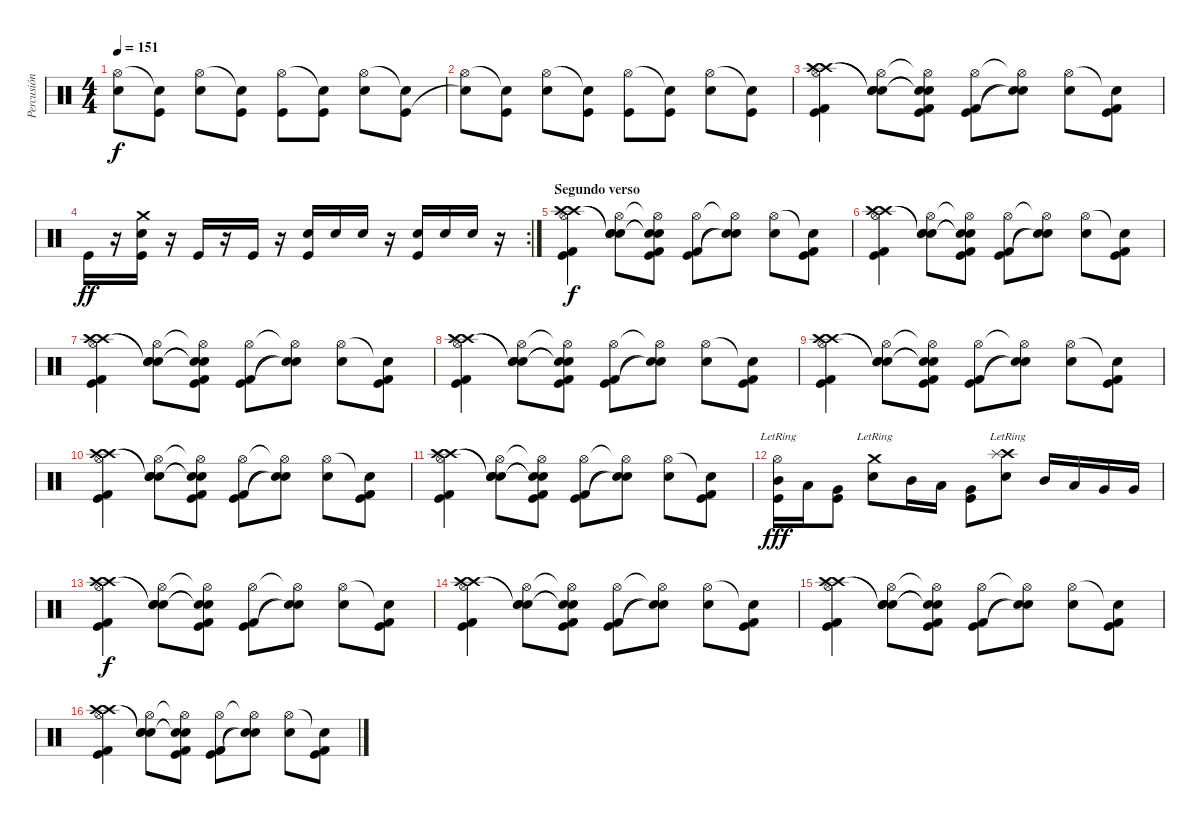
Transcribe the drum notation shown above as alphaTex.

\track ("Percusión" "Percusión") {instrument percussion}
\staff {score}
\articulation defaults
\ts (4 4)
\tempo 151
\clef neutral
\ks c
("Hi-Hat (open)" "Snare (hit)"{t}).8{dy f} ("Snare (hit)"{t} "Kick (hit)").8 ("Hi-Hat (open)" "Electric Snare (hit)").8 ("Snare (hit)"{t} "Kick (hit)").8 ("Hi-Hat (open)" "Kick (hit)").8 ("Snare (hit)"{t} "Kick (hit)").8 ("Hi-Hat (open)" "Electric Snare (hit)").8 ("Snare (hit)"{t} "Kick (hit)").8 |
("Hi-Hat (open)" "Snare (hit)"{t}).8 ("Snare (hit)"{t} "Kick (hit)").8 ("Hi-Hat (open)" "Electric Snare (hit)").8 ("Snare (hit)"{t} "Kick (hit)").8 ("Hi-Hat (open)" "Kick (hit)").8 ("Snare (hit)"{t} "Kick (hit)").8 ("Hi-Hat (open)" "Electric Snare (hit)").8 ("Snare (hit)"{t} "Kick (hit)").8 |
("Hi-Hat (open)" "Crash high (hit)" "Crash high (hit)" "Kick (hit)" "Kick (hit) 2").4 ("Hi-Hat (open)" "Snare (hit)"{t} "Snare (hit)"{t} "Electric Snare (hit)").8 ("Hi-Hat (open)"{t} "Snare (hit)"{t} "Snare (hit)"{t} "Kick (hit)" "Kick (hit) 2").8 ("Hi-Hat (open)" "Kick (hit)" "Kick (hit) 2").8 ("Hi-Hat (open)"{t} "Electric Snare (hit)"{t} "Snare (hit)"{t}).8 ("Hi-Hat (open)" "Electric Snare (hit)").8 ("Snare (hit)"{t} "Kick (hit)" "Kick (hit) 2").8 |
\rc 2 "Kick (hit)".16{dy ff}
r.16 ("Kick (hit)" "Snare (hit) 2" "Crash medium (hit)").16 r.16 "Kick (hit)".16 r.16 "Kick (hit)".16 r.16 ("Kick (hit)" "Snare (hit) 2").16 "Snare (hit) 2".16 "Snare (hit) 2".16 r.16 ("Kick (hit)" "Snare (hit) 2").16 "Snare (hit) 2".16 "Snare (hit) 2".16 r.16 |
\section ("" "Segundo verso")
("Hi-Hat (open)" "Crash high (hit)" "Crash high (hit)" "Kick (hit)" "Kick (hit) 2").4{dy f} ("Hi-Hat (open)" "Snare (hit)"{t} "Snare (hit)"{t} "Electric Snare (hit)").8 ("Hi-Hat (open)"{t} "Snare (hit)"{t} "Snare (hit)"{t} "Kick (hit)" "Kick (hit) 2").8 ("Hi-Hat (open)" "Kick (hit)" "Kick (hit) 2").8 ("Hi-Hat (open)"{t} "Electric Snare (hit)"{t} "Snare (hit)"{t}).8 ("Hi-Hat (open)" "Electric Snare (hit)").8 ("Snare (hit)"{t} "Kick (hit)" "Kick (hit) 2").8 |
("Hi-Hat (open)" "Crash high (hit)" "Crash high (hit)" "Kick (hit)" "Kick (hit) 2").4 ("Hi-Hat (open)" "Snare (hit)"{t} "Snare (hit)"{t} "Electric Snare (hit)").8 ("Hi-Hat (open)"{t} "Snare (hit)"{t} "Snare (hit)"{t} "Kick (hit)" "Kick (hit) 2").8 ("Hi-Hat (open)" "Kick (hit)" "Kick (hit) 2").8 ("Hi-Hat (open)"{t} "Electric Snare (hit)"{t} "Snare (hit)"{t}).8 ("Hi-Hat (open)" "Electric Snare (hit)").8 ("Snare (hit)"{t} "Kick (hit)" "Kick (hit) 2").8 |
("Hi-Hat (open)" "Crash high (hit)" "Crash high (hit)" "Kick (hit)" "Kick (hit) 2").4 ("Hi-Hat (open)" "Snare (hit)"{t} "Snare (hit)"{t} "Electric Snare (hit)").8 ("Hi-Hat (open)"{t} "Snare (hit)"{t} "Snare (hit)"{t} "Kick (hit)" "Kick (hit) 2").8 ("Hi-Hat (open)" "Kick (hit)" "Kick (hit) 2").8 ("Hi-Hat (open)"{t} "Electric Snare (hit)"{t} "Snare (hit)"{t}).8 ("Hi-Hat (open)" "Electric Snare (hit)").8 ("Snare (hit)"{t} "Kick (hit)" "Kick (hit) 2").8 |
("Hi-Hat (open)" "Crash high (hit)" "Crash high (hit)" "Kick (hit)" "Kick (hit) 2").4 ("Hi-Hat (open)" "Snare (hit)"{t} "Snare (hit)"{t} "Electric Snare (hit)").8 ("Hi-Hat (open)"{t} "Snare (hit)"{t} "Snare (hit)"{t} "Kick (hit)" "Kick (hit) 2").8 ("Hi-Hat (open)" "Kick (hit)" "Kick (hit) 2").8 ("Hi-Hat (open)"{t} "Electric Snare (hit)"{t} "Snare (hit)"{t}).8 ("Hi-Hat (open)" "Electric Snare (hit)").8 ("Snare (hit)"{t} "Kick (hit)" "Kick (hit) 2").8 |
("Hi-Hat (open)" "Crash high (hit)" "Crash high (hit)" "Kick (hit)" "Kick (hit) 2").4 ("Hi-Hat (open)" "Snare (hit)"{t} "Snare (hit)"{t} "Electric Snare (hit)").8 ("Hi-Hat (open)"{t} "Snare (hit)"{t} "Snare (hit)"{t} "Kick (hit)" "Kick (hit) 2").8 ("Hi-Hat (open)" "Kick (hit)" "Kick (hit) 2").8 ("Hi-Hat (open)"{t} "Electric Snare (hit)"{t} "Snare (hit)"{t}).8 ("Hi-Hat (open)" "Electric Snare (hit)").8 ("Snare (hit)"{t} "Kick (hit)" "Kick (hit) 2").8 |
("Hi-Hat (open)" "Crash high (hit)" "Crash high (hit)" "Kick (hit)" "Kick (hit) 2").4 ("Hi-Hat (open)" "Snare (hit)"{t} "Snare (hit)"{t} "Electric Snare (hit)").8 ("Hi-Hat (open)"{t} "Snare (hit)"{t} "Snare (hit)"{t} "Kick (hit)" "Kick (hit) 2").8 ("Hi-Hat (open)" "Kick (hit)" "Kick (hit) 2").8 ("Hi-Hat (open)"{t} "Electric Snare (hit)"{t} "Snare (hit)"{t}).8 ("Hi-Hat (open)" "Electric Snare (hit)").8 ("Snare (hit)"{t} "Kick (hit)" "Kick (hit) 2").8 |
("Hi-Hat (open)" "Crash high (hit)" "Crash high (hit)" "Kick (hit)" "Kick (hit) 2").4 ("Hi-Hat (open)" "Snare (hit)"{t} "Snare (hit)"{t} "Electric Snare (hit)").8 ("Hi-Hat (open)"{t} "Snare (hit)"{t} "Snare (hit)"{t} "Kick (hit)" "Kick (hit) 2").8 ("Hi-Hat (open)" "Kick (hit)" "Kick (hit) 2").8 ("Hi-Hat (open)"{t} "Electric Snare (hit)"{t} "Snare (hit)"{t}).8 ("Hi-Hat (open)" "Electric Snare (hit)").8 ("Snare (hit)"{t} "Kick (hit)" "Kick (hit) 2").8 |
("Hi-Hat (open)"{lr} "Mid Tom (hit)" "Kick (hit)").16{dy fff} "Low Tom (hit)".16 ("Very Low Tom (hit)" "Kick (hit)").8 ("Crash medium (hit)"{lr} "Snare (hit) 2").8 "Mid Tom (hit)".16 "Low Tom (hit)".16 ("Very Low Tom (hit)" "Kick (hit)").8 ("Crash high (hit)"{lr} "Splash (hit)"{lr} "Snare (hit) 2").8 "Mid Tom (hit)".16 "Low Tom (hit)".16 "Very Low Tom (hit)".16 "Very Low Tom (hit)".16 |
("Hi-Hat (open)" "Crash high (hit)" "Crash high (hit)" "Kick (hit)" "Kick (hit) 2").4{dy f} ("Hi-Hat (open)" "Snare (hit)"{t} "Snare (hit)"{t} "Electric Snare (hit)").8 ("Hi-Hat (open)"{t} "Snare (hit)"{t} "Snare (hit)"{t} "Kick (hit)" "Kick (hit) 2").8 ("Hi-Hat (open)" "Kick (hit)" "Kick (hit) 2").8 ("Hi-Hat (open)"{t} "Electric Snare (hit)"{t} "Snare (hit)"{t}).8 ("Hi-Hat (open)" "Electric Snare (hit)").8 ("Snare (hit)"{t} "Kick (hit)" "Kick (hit) 2").8 |
("Hi-Hat (open)" "Crash high (hit)" "Crash high (hit)" "Kick (hit)" "Kick (hit) 2").4 ("Hi-Hat (open)" "Snare (hit)"{t} "Snare (hit)"{t} "Electric Snare (hit)").8 ("Hi-Hat (open)"{t} "Snare (hit)"{t} "Snare (hit)"{t} "Kick (hit)" "Kick (hit) 2").8 ("Hi-Hat (open)" "Kick (hit)" "Kick (hit) 2").8 ("Hi-Hat (open)"{t} "Electric Snare (hit)"{t} "Snare (hit)"{t}).8 ("Hi-Hat (open)" "Electric Snare (hit)").8 ("Snare (hit)"{t} "Kick (hit)" "Kick (hit) 2").8 |
("Hi-Hat (open)" "Crash high (hit)" "Crash high (hit)" "Kick (hit)" "Kick (hit) 2").4 ("Hi-Hat (open)" "Snare (hit)"{t} "Snare (hit)"{t} "Electric Snare (hit)").8 ("Hi-Hat (open)"{t} "Snare (hit)"{t} "Snare (hit)"{t} "Kick (hit)" "Kick (hit) 2").8 ("Hi-Hat (open)" "Kick (hit)" "Kick (hit) 2").8 ("Hi-Hat (open)"{t} "Electric Snare (hit)"{t} "Snare (hit)"{t}).8 ("Hi-Hat (open)" "Electric Snare (hit)").8 ("Snare (hit)"{t} "Kick (hit)" "Kick (hit) 2").8 |
("Hi-Hat (open)" "Crash high (hit)" "Crash high (hit)" "Kick (hit)" "Kick (hit) 2").4 ("Hi-Hat (open)" "Snare (hit)"{t} "Snare (hit)"{t} "Electric Snare (hit)").8 ("Hi-Hat (open)"{t} "Snare (hit)"{t} "Snare (hit)"{t} "Kick (hit)" "Kick (hit) 2").8 ("Hi-Hat (open)" "Kick (hit)" "Kick (hit) 2").8 ("Hi-Hat (open)"{t} "Electric Snare (hit)"{t} "Snare (hit)"{t}).8 ("Hi-Hat (open)" "Electric Snare (hit)").8 ("Snare (hit)"{t} "Kick (hit)" "Kick (hit) 2").8
